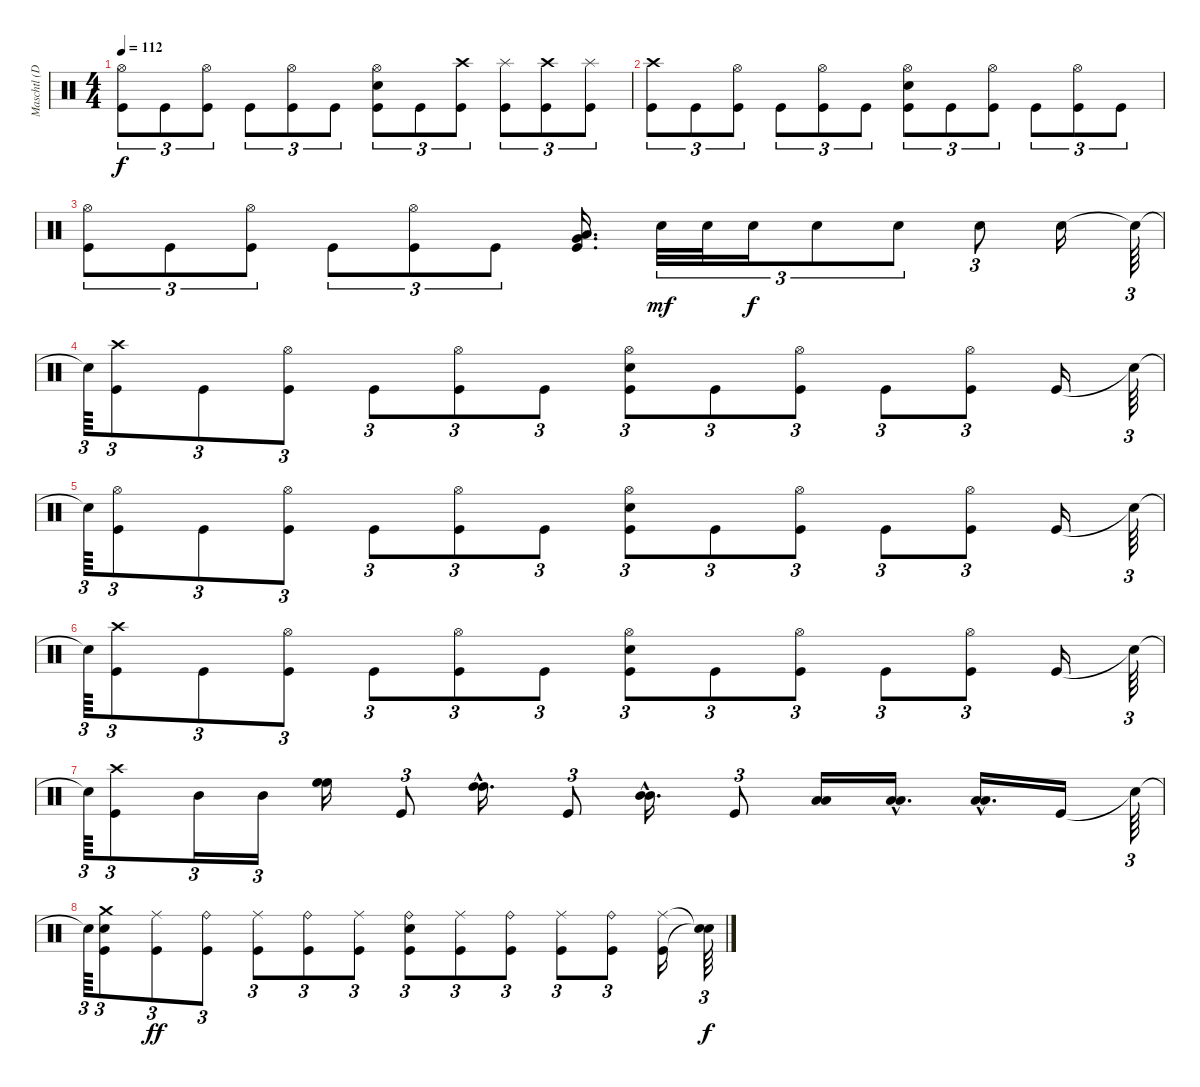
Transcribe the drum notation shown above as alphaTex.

\track ("Maschtl (Drums)" "Maschtl (D") {instrument percussion}
\staff {score}
\articulation defaults
\ts (4 4)
\tempo 112
\clef neutral
\ks c
("Hi-Hat (open)" "Kick (hit)").8{tu (3 2) dy f} "Kick (hit)".8{tu (3 2)} ("Hi-Hat (open)" "Kick (hit)").8{tu (3 2)} "Kick (hit)".8{tu (3 2)} ("Hi-Hat (open)" "Kick (hit)").8{tu (3 2)} "Kick (hit)".8{tu (3 2)} ("Hi-Hat (open)" "Electric Snare (hit)" "Kick (hit)").8{tu (3 2)} "Kick (hit)".8{tu (3 2)} ("Crash high (hit)" "Kick (hit)").8{tu (3 2)} ("Splash (hit)" "Kick (hit)").8{tu (3 2)} ("Crash high (hit)" "Kick (hit)").8{tu (3 2)} ("Splash (hit)" "Kick (hit)").8{tu (3 2)} |
("Crash high (hit)" "Kick (hit)").8{tu (3 2)} "Kick (hit)".8{tu (3 2)} ("Hi-Hat (open)" "Kick (hit)").8{tu (3 2)} "Kick (hit)".8{tu (3 2)} ("Hi-Hat (open)" "Kick (hit)").8{tu (3 2)} "Kick (hit)".8{tu (3 2)} ("Hi-Hat (open)" "Electric Snare (hit)" "Kick (hit)").8{tu (3 2)} "Kick (hit)".8{tu (3 2)} ("Hi-Hat (open)" "Kick (hit)").8{tu (3 2)} "Kick (hit)".8{tu (3 2)} ("Hi-Hat (open)" "Kick (hit)").8{tu (3 2)} "Kick (hit)".8{tu (3 2)} |
("Hi-Hat (open)" "Kick (hit)").8{tu (3 2)} "Kick (hit)".8{tu (3 2)} ("Hi-Hat (open)" "Kick (hit)").8{tu (3 2)} "Kick (hit)".8{tu (3 2)} ("Hi-Hat (open)" "Kick (hit)").8{tu (3 2)} "Kick (hit)".8{tu (3 2)} ("Kick (hit)" "Very Low Tom (hit)" "Low Tom (hit)").16{d} "Electric Snare (hit)".32{tu (3 2) dy mf} "Electric Snare (hit)".32{tu (3 2)} "Electric Snare (hit)".16{tu (3 2) dy f} "Electric Snare (hit)".8{tu (3 2)} "Electric Snare (hit)".8{tu (3 2)} "Electric Snare (hit)".8{tu (3 2)} "Electric Snare (hit)".16 "Snare (hit)"{t}.64{tu (3 2)} |
"Snare (hit)"{t}.64{tu (3 2)} ("Crash high (hit)" "Kick (hit)").8{tu (3 2)} "Kick (hit)".8{tu (3 2)} ("Hi-Hat (open)" "Kick (hit)").8{tu (3 2)} "Kick (hit)".8{tu (3 2)} ("Hi-Hat (open)" "Kick (hit)").8{tu (3 2)} "Kick (hit)".8{tu (3 2)} ("Hi-Hat (open)" "Electric Snare (hit)" "Kick (hit)").8{tu (3 2)} "Kick (hit)".8{tu (3 2)} ("Hi-Hat (open)" "Kick (hit)").8{tu (3 2)} "Kick (hit)".8{tu (3 2)} ("Hi-Hat (open)" "Kick (hit)").8{tu (3 2)} "Kick (hit)".16 "Snare (hit)"{t}.64{tu (3 2)} |
"Snare (hit)"{t}.64{tu (3 2)} ("Hi-Hat (open)" "Kick (hit)").8{tu (3 2)} "Kick (hit)".8{tu (3 2)} ("Hi-Hat (open)" "Kick (hit)").8{tu (3 2)} "Kick (hit)".8{tu (3 2)} ("Hi-Hat (open)" "Kick (hit)").8{tu (3 2)} "Kick (hit)".8{tu (3 2)} ("Hi-Hat (open)" "Electric Snare (hit)" "Kick (hit)").8{tu (3 2)} "Kick (hit)".8{tu (3 2)} ("Hi-Hat (open)" "Kick (hit)").8{tu (3 2)} "Kick (hit)".8{tu (3 2)} ("Hi-Hat (open)" "Kick (hit)").8{tu (3 2)} "Kick (hit)".16 "Snare (hit)"{t}.64{tu (3 2)} |
"Snare (hit)"{t}.64{tu (3 2)} ("Crash high (hit)" "Kick (hit)").8{tu (3 2)} "Kick (hit)".8{tu (3 2)} ("Hi-Hat (open)" "Kick (hit)").8{tu (3 2)} "Kick (hit)".8{tu (3 2)} ("Hi-Hat (open)" "Kick (hit)").8{tu (3 2)} "Kick (hit)".8{tu (3 2)} ("Hi-Hat (open)" "Electric Snare (hit)" "Kick (hit)").8{tu (3 2)} "Kick (hit)".8{tu (3 2)} ("Hi-Hat (open)" "Kick (hit)").8{tu (3 2)} "Kick (hit)".8{tu (3 2)} ("Hi-Hat (open)" "Kick (hit)").8{tu (3 2)} "Kick (hit)".16 "Snare (hit)"{t}.64{tu (3 2)} |
"Snare (hit)"{t}.64{tu (3 2)} ("Crash high (hit)" "Kick (hit)").8{tu (3 2)} "Mid Tom (hit)".16{tu (3 2)} "Mid Tom (hit)".16{tu (3 2)} ("High Floor Tom (hit)" "High Floor Tom (hit)").16 "Kick (hit)".8{tu (3 2)} ("High Tom (hit)"{hac} "High Tom (hit)").16{d} "Kick (hit)".8{tu (3 2)} ("Mid Tom (hit)"{hac} "Mid Tom (hit)").16{d} "Kick (hit)".8{tu (3 2)} ("Low Tom (hit)" "Low Tom (hit)").16 ("Low Tom (hit)"{hac} "Low Tom (hit)").16{d} ("Low Tom (hit)"{hac} "Low Tom (hit)").16{d} "Kick (hit)".16 "Snare (hit)"{t}.64{tu (3 2)} |
"Snare (hit)"{t}.64{tu (3 2)} ("Crash medium (hit)" "Electric Snare (hit)" "Kick (hit)").8{tu (3 2)} ("Ride (middle)" "Kick (hit)").8{tu (3 2) dy ff} ("Ride (bell)" "Kick (hit)").8{tu (3 2)} ("Ride (middle)" "Kick (hit)").8{tu (3 2)} ("Ride (bell)" "Kick (hit)").8{tu (3 2)} ("Ride (middle)" "Kick (hit)").8{tu (3 2)} ("Ride (bell)" "Electric Snare (hit)" "Kick (hit)").8{tu (3 2)} ("Ride (middle)" "Kick (hit)").8{tu (3 2)} ("Ride (bell)" "Kick (hit)").8{tu (3 2)} ("Ride (middle)" "Kick (hit)").8{tu (3 2)} ("Ride (bell)" "Kick (hit)").8{tu (3 2)} ("Ride (middle)" "Kick (hit)").16 ("Snare (hit)"{t} "Snare (hit)"{t}).64{tu (3 2) dy f}
